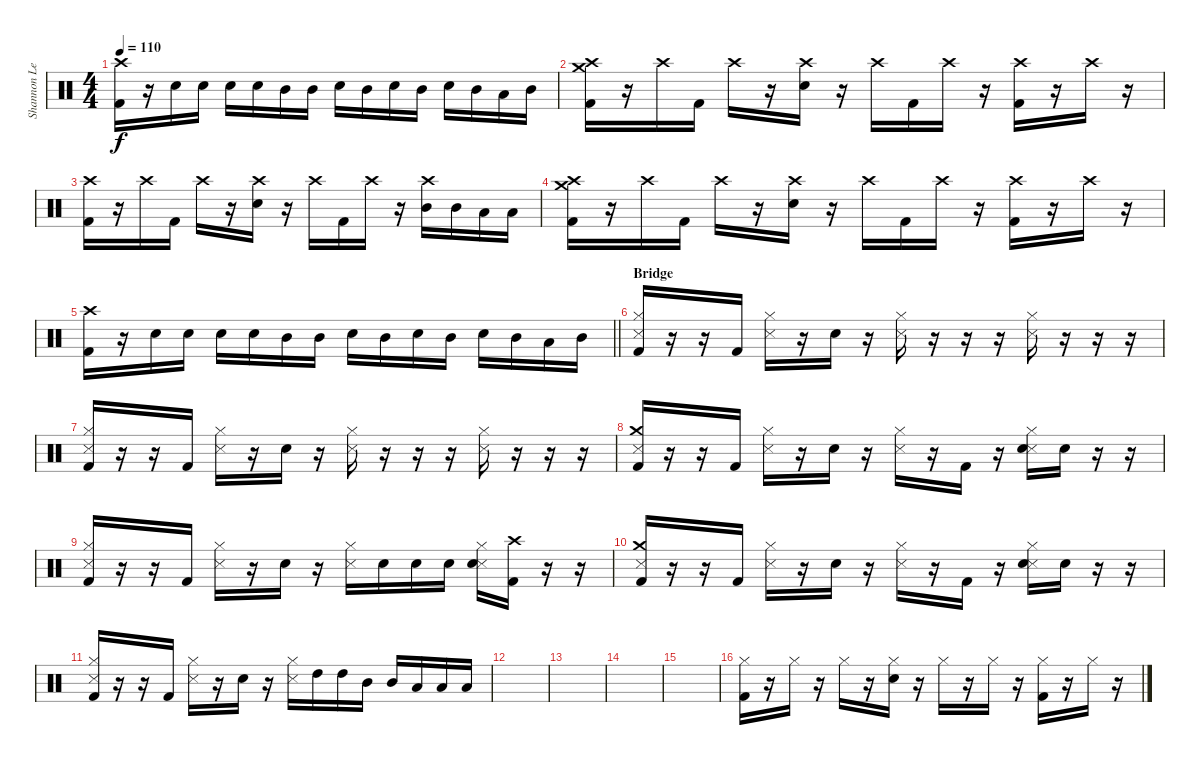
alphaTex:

\track ("Shannon Leto [Drums]" "Shannon Le") {instrument percussion}
\staff {score}
\articulation defaults
\ts (4 4)
\tempo 110
\clef neutral
\ks c
("Crash high (hit)" "Kick (hit) 2").16{dy f} r.16 "Electric Snare (hit)".16 "Electric Snare (hit)".16 "Electric Snare (hit)".16 "Electric Snare (hit)".16 "Mid Tom (hit)".16 "Mid Tom (hit)".16 "Electric Snare (hit)".16 "Mid Tom (hit)".16 "Electric Snare (hit)".16 "Mid Tom (hit)".16 "Electric Snare (hit)".16 "Mid Tom (hit)".16 "Low Tom (hit)".16 "Mid Tom (hit)".16 |
("Crash high (hit)" "Crash medium (hit)" "Kick (hit) 2").16 r.16 "Crash high (hit)".16 "Kick (hit) 2".16 "Crash high (hit)".16 r.16 ("Crash high (hit)" "Electric Snare (hit)").16 r.16 "Crash high (hit)".16 "Kick (hit) 2".16 "Crash high (hit)".16 r.16 ("Crash high (hit)" "Kick (hit) 2").16 r.16 "Crash high (hit)".16 r.16 |
("Crash high (hit)" "Kick (hit) 2").16 r.16 "Crash high (hit)".16 "Kick (hit) 2".16 "Crash high (hit)".16 r.16 ("Crash high (hit)" "Electric Snare (hit)").16 r.16 "Crash high (hit)".16 "Kick (hit) 2".16 "Crash high (hit)".16 r.16 ("Crash high (hit)" "Mid Tom (hit)").16 "Mid Tom (hit)".16 "Low Tom (hit)".16 "Low Tom (hit)".16 |
("Crash high (hit)" "Crash medium (hit)" "Kick (hit) 2").16 r.16 "Crash high (hit)".16 "Kick (hit) 2".16 "Crash high (hit)".16 r.16 ("Crash high (hit)" "Electric Snare (hit)").16 r.16 "Crash high (hit)".16 "Kick (hit) 2".16 "Crash high (hit)".16 r.16 ("Crash high (hit)" "Kick (hit) 2").16 r.16 "Crash high (hit)".16 r.16 |
\barLineRight lightlight
("Crash high (hit)" "Kick (hit) 2").16 r.16 "Electric Snare (hit)".16 "Electric Snare (hit)".16 "Electric Snare (hit)".16 "Electric Snare (hit)".16 "Mid Tom (hit)".16 "Mid Tom (hit)".16 "Electric Snare (hit)".16 "Mid Tom (hit)".16 "Electric Snare (hit)".16 "Mid Tom (hit)".16 "Electric Snare (hit)".16 "Mid Tom (hit)".16 "Low Tom (hit)".16 "Mid Tom (hit)".16 |
\section ("" "Bridge")
("Hi-Hat (closed)" "Snare (side stick) 3" "Kick (hit) 2").16 r.16 r.16 "Kick (hit) 2".16 ("Hi-Hat (closed)" "Snare (side stick) 3").16 r.16 "Electric Snare (hit)".16 r.16 ("Hi-Hat (closed)" "Snare (side stick) 3").16 r.16 r.16 r.16 ("Hi-Hat (closed)" "Snare (side stick) 3").16 r.16 r.16 r.16 |
("Hi-Hat (closed)" "Snare (side stick) 3" "Kick (hit) 2").16 r.16 r.16 "Kick (hit) 2".16 ("Hi-Hat (closed)" "Snare (side stick) 3").16 r.16 "Electric Snare (hit)".16 r.16 ("Hi-Hat (closed)" "Snare (side stick) 3").16 r.16 r.16 r.16 ("Hi-Hat (closed)" "Snare (side stick) 3").16 r.16 r.16 r.16 |
("Crash medium (hit)" "Snare (side stick) 3" "Kick (hit) 2").16 r.16 r.16 "Kick (hit) 2".16 ("Hi-Hat (closed)" "Snare (side stick) 3").16 r.16 "Electric Snare (hit)".16 r.16 ("Hi-Hat (closed)" "Snare (side stick) 3").16 r.16 "Kick (hit) 2".16 r.16 ("Hi-Hat (closed)" "Snare (side stick) 3" "Electric Snare (hit)").16 "Electric Snare (hit)".16 r.16 r.16 |
("Hi-Hat (closed)" "Snare (side stick) 3" "Kick (hit) 2").16 r.16 r.16 "Kick (hit) 2".16 ("Hi-Hat (closed)" "Snare (side stick) 3").16 r.16 "Electric Snare (hit)".16 r.16 ("Hi-Hat (closed)" "Snare (side stick) 3").16 "Electric Snare (hit)".16 "Electric Snare (hit)".16 "Electric Snare (hit)".16 ("Hi-Hat (closed)" "Snare (side stick) 3" "Electric Snare (hit)").16 ("Crash high (hit)" "Kick (hit) 2").16 r.16 r.16 |
("Crash medium (hit)" "Snare (side stick) 3" "Kick (hit) 2").16 r.16 r.16 "Kick (hit) 2".16 ("Hi-Hat (closed)" "Snare (side stick) 3").16 r.16 "Electric Snare (hit)".16 r.16 ("Hi-Hat (closed)" "Snare (side stick) 3").16 r.16 "Kick (hit) 2".16 r.16 ("Hi-Hat (closed)" "Snare (side stick) 3" "Electric Snare (hit)").16 "Electric Snare (hit)".16 r.16 r.16 |
("Hi-Hat (closed)" "Snare (side stick) 3" "Kick (hit) 2").16 r.16 r.16 "Kick (hit) 2".16 ("Hi-Hat (closed)" "Snare (side stick) 3").16 r.16 "Electric Snare (hit)".16 r.16 ("Hi-Hat (closed)" "Snare (side stick) 3").16 "High Tom (hit)".16 "High Tom (hit)".16 "Mid Tom (hit)".16 "Mid Tom (hit)".16 "Low Tom (hit)".16 "Low Tom (hit)".16 "Low Tom (hit)".16 |
|
|
|
|
("Hi-Hat (closed)" "Kick (hit) 2").16 r.16 "Hi-Hat (closed)".16 r.16 "Hi-Hat (closed)".16 r.16 ("Hi-Hat (closed)" "Electric Snare (hit)").16 r.16 "Hi-Hat (closed)".16 r.16 "Hi-Hat (closed)".16 r.16 ("Hi-Hat (closed)" "Kick (hit) 2").16 r.16 "Hi-Hat (closed)".16 r.16
